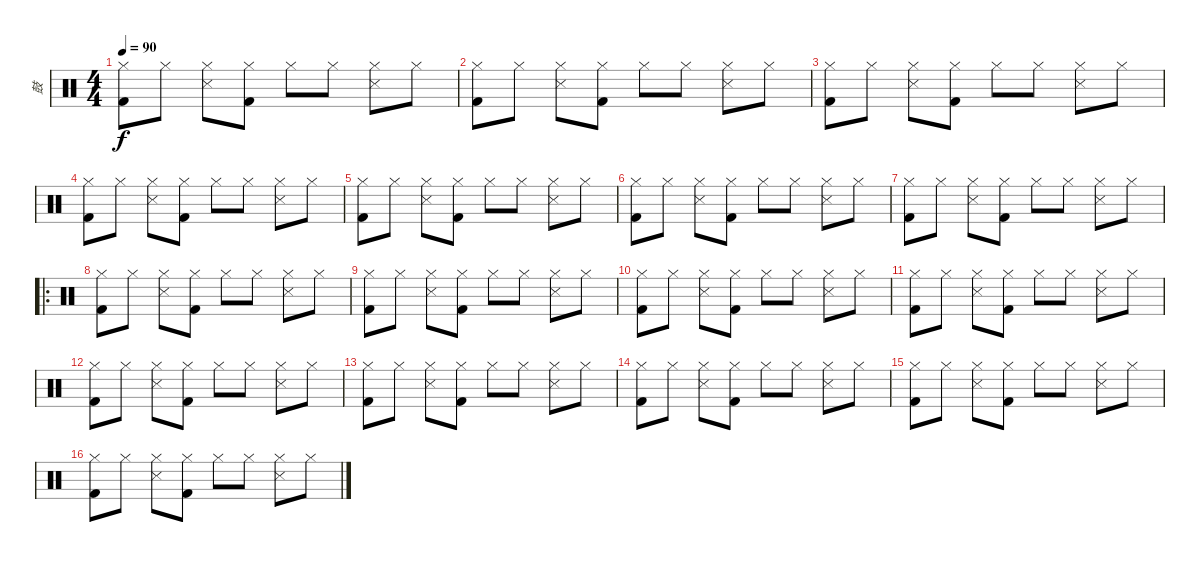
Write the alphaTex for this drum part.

\track ("鼓" "鼓") {instrument percussion}
\staff {score}
\articulation defaults
\ts (4 4)
\tempo 90
\clef neutral
\ks c
("Hi-Hat (closed)" "Kick (hit) 2").8{dy f} "Hi-Hat (closed)".8 ("Hi-Hat (closed)" "Snare (side stick) 3").8 ("Hi-Hat (closed)" "Kick (hit) 2").8 "Hi-Hat (closed)".8 "Hi-Hat (closed)".8 ("Hi-Hat (closed)" "Snare (side stick) 3").8 "Hi-Hat (closed)".8 |
("Hi-Hat (closed)" "Kick (hit) 2").8 "Hi-Hat (closed)".8 ("Hi-Hat (closed)" "Snare (side stick) 3").8 ("Hi-Hat (closed)" "Kick (hit) 2").8 "Hi-Hat (closed)".8 "Hi-Hat (closed)".8 ("Hi-Hat (closed)" "Snare (side stick) 3").8 "Hi-Hat (closed)".8 |
("Hi-Hat (closed)" "Kick (hit) 2").8 "Hi-Hat (closed)".8 ("Hi-Hat (closed)" "Snare (side stick) 3").8 ("Hi-Hat (closed)" "Kick (hit) 2").8 "Hi-Hat (closed)".8 "Hi-Hat (closed)".8 ("Hi-Hat (closed)" "Snare (side stick) 3").8 "Hi-Hat (closed)".8 |
("Hi-Hat (closed)" "Kick (hit) 2").8 "Hi-Hat (closed)".8 ("Hi-Hat (closed)" "Snare (side stick) 3").8 ("Hi-Hat (closed)" "Kick (hit) 2").8 "Hi-Hat (closed)".8 "Hi-Hat (closed)".8 ("Hi-Hat (closed)" "Snare (side stick) 3").8 "Hi-Hat (closed)".8 |
("Hi-Hat (closed)" "Kick (hit) 2").8 "Hi-Hat (closed)".8 ("Hi-Hat (closed)" "Snare (side stick) 3").8 ("Hi-Hat (closed)" "Kick (hit) 2").8 "Hi-Hat (closed)".8 "Hi-Hat (closed)".8 ("Hi-Hat (closed)" "Snare (side stick) 3").8 "Hi-Hat (closed)".8 |
("Hi-Hat (closed)" "Kick (hit) 2").8 "Hi-Hat (closed)".8 ("Hi-Hat (closed)" "Snare (side stick) 3").8 ("Hi-Hat (closed)" "Kick (hit) 2").8 "Hi-Hat (closed)".8 "Hi-Hat (closed)".8 ("Hi-Hat (closed)" "Snare (side stick) 3").8 "Hi-Hat (closed)".8 |
("Hi-Hat (closed)" "Kick (hit) 2").8 "Hi-Hat (closed)".8 ("Hi-Hat (closed)" "Snare (side stick) 3").8 ("Hi-Hat (closed)" "Kick (hit) 2").8 "Hi-Hat (closed)".8 "Hi-Hat (closed)".8 ("Hi-Hat (closed)" "Snare (side stick) 3").8 "Hi-Hat (closed)".8 |
\ro
("Hi-Hat (closed)" "Kick (hit) 2").8 "Hi-Hat (closed)".8 ("Hi-Hat (closed)" "Snare (side stick) 3").8 ("Hi-Hat (closed)" "Kick (hit) 2").8 "Hi-Hat (closed)".8 "Hi-Hat (closed)".8 ("Hi-Hat (closed)" "Snare (side stick) 3").8 "Hi-Hat (closed)".8 |
("Hi-Hat (closed)" "Kick (hit) 2").8 "Hi-Hat (closed)".8 ("Hi-Hat (closed)" "Snare (side stick) 3").8 ("Hi-Hat (closed)" "Kick (hit) 2").8 "Hi-Hat (closed)".8 "Hi-Hat (closed)".8 ("Hi-Hat (closed)" "Snare (side stick) 3").8 "Hi-Hat (closed)".8 |
("Hi-Hat (closed)" "Kick (hit) 2").8 "Hi-Hat (closed)".8 ("Hi-Hat (closed)" "Snare (side stick) 3").8 ("Hi-Hat (closed)" "Kick (hit) 2").8 "Hi-Hat (closed)".8 "Hi-Hat (closed)".8 ("Hi-Hat (closed)" "Snare (side stick) 3").8 "Hi-Hat (closed)".8 |
("Hi-Hat (closed)" "Kick (hit) 2").8 "Hi-Hat (closed)".8 ("Hi-Hat (closed)" "Snare (side stick) 3").8 ("Hi-Hat (closed)" "Kick (hit) 2").8 "Hi-Hat (closed)".8 "Hi-Hat (closed)".8 ("Hi-Hat (closed)" "Snare (side stick) 3").8 "Hi-Hat (closed)".8 |
("Hi-Hat (closed)" "Kick (hit) 2").8 "Hi-Hat (closed)".8 ("Hi-Hat (closed)" "Snare (side stick) 3").8 ("Hi-Hat (closed)" "Kick (hit) 2").8 "Hi-Hat (closed)".8 "Hi-Hat (closed)".8 ("Hi-Hat (closed)" "Snare (side stick) 3").8 "Hi-Hat (closed)".8 |
("Hi-Hat (closed)" "Kick (hit) 2").8 "Hi-Hat (closed)".8 ("Hi-Hat (closed)" "Snare (side stick) 3").8 ("Hi-Hat (closed)" "Kick (hit) 2").8 "Hi-Hat (closed)".8 "Hi-Hat (closed)".8 ("Hi-Hat (closed)" "Snare (side stick) 3").8 "Hi-Hat (closed)".8 |
("Hi-Hat (closed)" "Kick (hit) 2").8 "Hi-Hat (closed)".8 ("Hi-Hat (closed)" "Snare (side stick) 3").8 ("Hi-Hat (closed)" "Kick (hit) 2").8 "Hi-Hat (closed)".8 "Hi-Hat (closed)".8 ("Hi-Hat (closed)" "Snare (side stick) 3").8 "Hi-Hat (closed)".8 |
("Hi-Hat (closed)" "Kick (hit) 2").8 "Hi-Hat (closed)".8 ("Hi-Hat (closed)" "Snare (side stick) 3").8 ("Hi-Hat (closed)" "Kick (hit) 2").8 "Hi-Hat (closed)".8 "Hi-Hat (closed)".8 ("Hi-Hat (closed)" "Snare (side stick) 3").8 "Hi-Hat (closed)".8 |
("Hi-Hat (closed)" "Kick (hit) 2").8 "Hi-Hat (closed)".8 ("Hi-Hat (closed)" "Snare (side stick) 3").8 ("Hi-Hat (closed)" "Kick (hit) 2").8 "Hi-Hat (closed)".8 "Hi-Hat (closed)".8 ("Hi-Hat (closed)" "Snare (side stick) 3").8 "Hi-Hat (closed)".8
